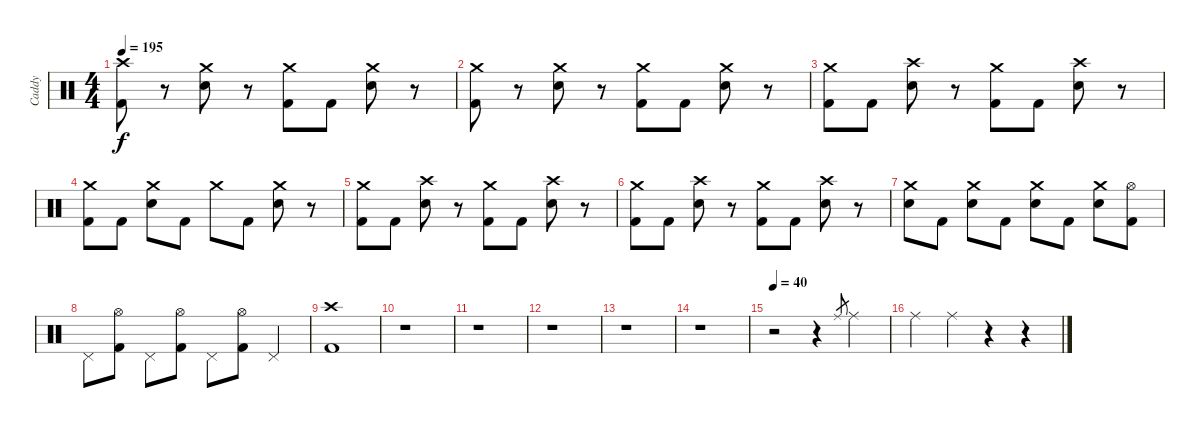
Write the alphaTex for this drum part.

\track ("Caddy" "Caddy") {instrument percussion}
\staff {score}
\articulation defaults
\ts (4 4)
\tempo 195
\clef neutral
\ks c
("Crash high (hit)" "Kick (hit) 2").8{dy f} r.8 ("Crash medium (hit)" "Electric Snare (hit)").8 r.8 ("Crash medium (hit)" "Kick (hit) 2").8 "Kick (hit) 2".8 ("Crash medium (hit)" "Electric Snare (hit)").8 r.8 |
("Crash medium (hit)" "Kick (hit) 2").8 r.8 ("Crash medium (hit)" "Electric Snare (hit)").8 r.8 ("Crash medium (hit)" "Kick (hit) 2").8 "Kick (hit) 2".8 ("Crash medium (hit)" "Electric Snare (hit)").8 r.8 |
("Crash medium (hit)" "Kick (hit) 2").8 "Kick (hit) 2".8 ("Crash high (hit)" "Electric Snare (hit)").8 r.8 ("Crash medium (hit)" "Kick (hit) 2").8 "Kick (hit) 2".8 ("Crash high (hit)" "Electric Snare (hit)").8 r.8 |
("Crash medium (hit)" "Kick (hit) 2").8 "Kick (hit) 2".8 ("Crash medium (hit)" "Electric Snare (hit)").8 "Kick (hit) 2".8 "Crash medium (hit)".8 "Kick (hit) 2".8 ("Crash medium (hit)" "Electric Snare (hit)").8 r.8 |
("Crash medium (hit)" "Kick (hit) 2").8 "Kick (hit) 2".8 ("Crash high (hit)" "Electric Snare (hit)").8 r.8 ("Crash medium (hit)" "Kick (hit) 2").8 "Kick (hit) 2".8 ("Crash high (hit)" "Electric Snare (hit)").8 r.8 |
("Crash medium (hit)" "Kick (hit) 2").8 "Kick (hit) 2".8 ("Crash high (hit)" "Electric Snare (hit)").8 r.8 ("Crash medium (hit)" "Kick (hit) 2").8 "Kick (hit) 2".8 ("Crash high (hit)" "Electric Snare (hit)").8 r.8 |
("Crash medium (hit)" "Electric Snare (hit)").8 "Kick (hit) 2".8 ("Crash medium (hit)" "Electric Snare (hit)").8 "Kick (hit) 2".8 ("Crash medium (hit)" "Electric Snare (hit)").8 "Kick (hit) 2".8 ("Crash medium (hit)" "Electric Snare (hit)").8 ("Hi-Hat (open)" "Kick (hit) 2").8 |
"Pedal Hi-Hat (hit)".8 ("Hi-Hat (open)" "Kick (hit) 2").8 "Pedal Hi-Hat (hit)".8 ("Hi-Hat (open)" "Kick (hit) 2").8 "Pedal Hi-Hat (hit)".8 ("Hi-Hat (open)" "Kick (hit) 2").8 "Pedal Hi-Hat (hit)".4 |
("Crash high (hit)" "Kick (hit) 2").1 |
r.1 |
r.1 |
r.1 |
r.1 |
r.1 |
\tempo 40
r.2 r.4 "Ride (middle)".8{gr} "Ride (middle)".4 |
"Ride (middle)".4 "Ride (middle)".4 r.4 r.4
